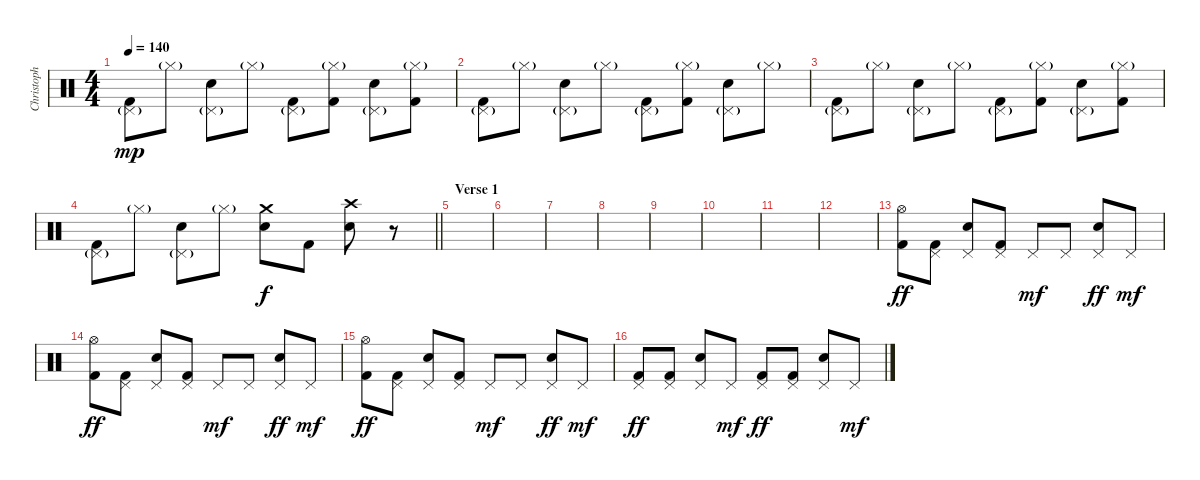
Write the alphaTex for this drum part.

\track ("Christoph" "Christoph") {instrument percussion}
\staff {score}
\articulation defaults
\ts (4 4)
\tempo 140
\clef neutral
\ks c
("Pedal Hi-Hat (hit)"{g} "Kick (hit) 2").8{dy mp} "Hi-Hat (closed)"{g}.8 ("Pedal Hi-Hat (hit)"{g} "Electric Snare (hit)").8 "Hi-Hat (closed)"{g}.8 ("Pedal Hi-Hat (hit)"{g} "Kick (hit) 2").8 ("Hi-Hat (closed)"{g} "Kick (hit) 2").8 ("Pedal Hi-Hat (hit)"{g} "Electric Snare (hit)").8 ("Hi-Hat (closed)"{g} "Kick (hit) 2").8 |
("Pedal Hi-Hat (hit)"{g} "Kick (hit) 2").8 "Hi-Hat (closed)"{g}.8 ("Pedal Hi-Hat (hit)"{g} "Electric Snare (hit)").8 "Hi-Hat (closed)"{g}.8 ("Pedal Hi-Hat (hit)"{g} "Kick (hit) 2").8 ("Hi-Hat (closed)"{g} "Kick (hit) 2").8 ("Pedal Hi-Hat (hit)"{g} "Electric Snare (hit)").8 "Hi-Hat (closed)"{g}.8 |
("Pedal Hi-Hat (hit)"{g} "Kick (hit) 2").8 "Hi-Hat (closed)"{g}.8 ("Pedal Hi-Hat (hit)"{g} "Electric Snare (hit)").8 "Hi-Hat (closed)"{g}.8 ("Pedal Hi-Hat (hit)"{g} "Kick (hit) 2").8 ("Hi-Hat (closed)"{g} "Kick (hit) 2").8 ("Pedal Hi-Hat (hit)"{g} "Electric Snare (hit)").8 ("Hi-Hat (closed)"{g} "Kick (hit) 2").8 |
\barLineRight lightlight
("Pedal Hi-Hat (hit)"{g} "Kick (hit) 2").8 "Hi-Hat (closed)"{g}.8 ("Pedal Hi-Hat (hit)"{g} "Electric Snare (hit)").8 "Hi-Hat (closed)"{g}.8 ("Crash medium (hit)" "Electric Snare (hit)").8{dy f} "Kick (hit) 2".8 ("Crash high (hit)" "Electric Snare (hit)").8 r.8 |
\section ("" "Verse 1")
|
|
|
|
|
|
|
|
("Hi-Hat (open)" "Kick (hit) 2").8{dy ff} ("Pedal Hi-Hat (hit)" "Kick (hit) 2").8 ("Pedal Hi-Hat (hit)" "Electric Snare (hit)").8 ("Pedal Hi-Hat (hit)" "Kick (hit) 2").8 "Pedal Hi-Hat (hit)".8{dy mf} "Pedal Hi-Hat (hit)".8 ("Pedal Hi-Hat (hit)" "Electric Snare (hit)").8{dy ff} "Pedal Hi-Hat (hit)".8{dy mf} |
("Hi-Hat (open)" "Kick (hit) 2").8{dy ff} ("Pedal Hi-Hat (hit)" "Kick (hit) 2").8 ("Pedal Hi-Hat (hit)" "Electric Snare (hit)").8 ("Pedal Hi-Hat (hit)" "Kick (hit) 2").8 "Pedal Hi-Hat (hit)".8{dy mf} "Pedal Hi-Hat (hit)".8 ("Pedal Hi-Hat (hit)" "Electric Snare (hit)").8{dy ff} "Pedal Hi-Hat (hit)".8{dy mf} |
("Hi-Hat (open)" "Kick (hit) 2").8{dy ff} ("Pedal Hi-Hat (hit)" "Kick (hit) 2").8 ("Pedal Hi-Hat (hit)" "Electric Snare (hit)").8 ("Pedal Hi-Hat (hit)" "Kick (hit) 2").8 "Pedal Hi-Hat (hit)".8{dy mf} "Pedal Hi-Hat (hit)".8 ("Pedal Hi-Hat (hit)" "Electric Snare (hit)").8{dy ff} "Pedal Hi-Hat (hit)".8{dy mf} |
("Pedal Hi-Hat (hit)" "Kick (hit) 2").8{dy ff} ("Pedal Hi-Hat (hit)" "Kick (hit) 2").8 ("Pedal Hi-Hat (hit)" "Electric Snare (hit)").8 "Pedal Hi-Hat (hit)".8{dy mf} ("Pedal Hi-Hat (hit)" "Kick (hit) 2").8{dy ff} ("Pedal Hi-Hat (hit)" "Kick (hit) 2").8 ("Pedal Hi-Hat (hit)" "Electric Snare (hit)").8 "Pedal Hi-Hat (hit)".8{dy mf}
